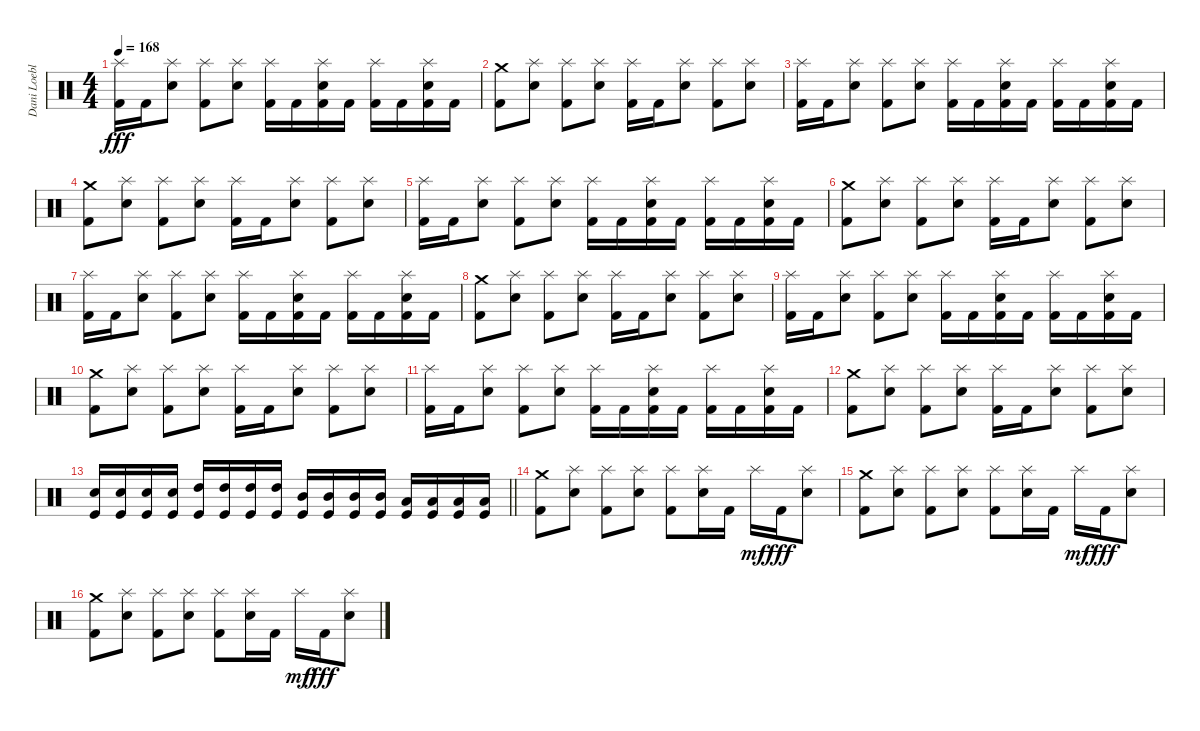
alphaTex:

\track ("Dani Loeble" "Dani Loebl") {instrument percussion}
\staff {score}
\articulation defaults
\ts (4 4)
\tempo 168
\clef neutral
\ks c
("Splash (hit)" "Kick (hit) 2").16{dy fff} "Kick (hit) 2".16 ("Splash (hit)" "Electric Snare (hit)").8 ("Splash (hit)" "Kick (hit) 2").8 ("Splash (hit)" "Electric Snare (hit)").8 ("Splash (hit)" "Kick (hit) 2").16 "Kick (hit) 2".16 ("Splash (hit)" "Electric Snare (hit)" "Kick (hit) 2").16 "Kick (hit) 2".16 ("Splash (hit)" "Kick (hit) 2").16 "Kick (hit) 2".16 ("Splash (hit)" "Electric Snare (hit)" "Kick (hit) 2").16 "Kick (hit) 2".16 |
("Crash medium (hit)" "Kick (hit) 2").8 ("Splash (hit)" "Electric Snare (hit)").8 ("Splash (hit)" "Kick (hit) 2").8 ("Splash (hit)" "Electric Snare (hit)").8 ("Splash (hit)" "Kick (hit) 2").16 "Kick (hit) 2".16 ("Splash (hit)" "Electric Snare (hit)").8 ("Splash (hit)" "Kick (hit) 2").8 ("Splash (hit)" "Electric Snare (hit)").8 |
("Splash (hit)" "Kick (hit) 2").16 "Kick (hit) 2".16 ("Splash (hit)" "Electric Snare (hit)").8 ("Splash (hit)" "Kick (hit) 2").8 ("Splash (hit)" "Electric Snare (hit)").8 ("Splash (hit)" "Kick (hit) 2").16 "Kick (hit) 2".16 ("Splash (hit)" "Electric Snare (hit)" "Kick (hit) 2").16 "Kick (hit) 2".16 ("Splash (hit)" "Kick (hit) 2").16 "Kick (hit) 2".16 ("Splash (hit)" "Electric Snare (hit)" "Kick (hit) 2").16 "Kick (hit) 2".16 |
("Crash medium (hit)" "Kick (hit) 2").8 ("Splash (hit)" "Electric Snare (hit)").8 ("Splash (hit)" "Kick (hit) 2").8 ("Splash (hit)" "Electric Snare (hit)").8 ("Splash (hit)" "Kick (hit) 2").16 "Kick (hit) 2".16 ("Splash (hit)" "Electric Snare (hit)").8 ("Splash (hit)" "Kick (hit) 2").8 ("Splash (hit)" "Electric Snare (hit)").8 |
("Splash (hit)" "Kick (hit) 2").16 "Kick (hit) 2".16 ("Splash (hit)" "Electric Snare (hit)").8 ("Splash (hit)" "Kick (hit) 2").8 ("Splash (hit)" "Electric Snare (hit)").8 ("Splash (hit)" "Kick (hit) 2").16 "Kick (hit) 2".16 ("Splash (hit)" "Electric Snare (hit)" "Kick (hit) 2").16 "Kick (hit) 2".16 ("Splash (hit)" "Kick (hit) 2").16 "Kick (hit) 2".16 ("Splash (hit)" "Electric Snare (hit)" "Kick (hit) 2").16 "Kick (hit) 2".16 |
("Crash medium (hit)" "Kick (hit) 2").8 ("Splash (hit)" "Electric Snare (hit)").8 ("Splash (hit)" "Kick (hit) 2").8 ("Splash (hit)" "Electric Snare (hit)").8 ("Splash (hit)" "Kick (hit) 2").16 "Kick (hit) 2".16 ("Splash (hit)" "Electric Snare (hit)").8 ("Splash (hit)" "Kick (hit) 2").8 ("Splash (hit)" "Electric Snare (hit)").8 |
("Splash (hit)" "Kick (hit) 2").16 "Kick (hit) 2".16 ("Splash (hit)" "Electric Snare (hit)").8 ("Splash (hit)" "Kick (hit) 2").8 ("Splash (hit)" "Electric Snare (hit)").8 ("Splash (hit)" "Kick (hit) 2").16 "Kick (hit) 2".16 ("Splash (hit)" "Electric Snare (hit)" "Kick (hit) 2").16 "Kick (hit) 2".16 ("Splash (hit)" "Kick (hit) 2").16 "Kick (hit) 2".16 ("Splash (hit)" "Electric Snare (hit)" "Kick (hit) 2").16 "Kick (hit) 2".16 |
("Crash medium (hit)" "Kick (hit) 2").8 ("Splash (hit)" "Electric Snare (hit)").8 ("Splash (hit)" "Kick (hit) 2").8 ("Splash (hit)" "Electric Snare (hit)").8 ("Splash (hit)" "Kick (hit) 2").16 "Kick (hit) 2".16 ("Splash (hit)" "Electric Snare (hit)").8 ("Splash (hit)" "Kick (hit) 2").8 ("Splash (hit)" "Electric Snare (hit)").8 |
("Splash (hit)" "Kick (hit) 2").16 "Kick (hit) 2".16 ("Splash (hit)" "Electric Snare (hit)").8 ("Splash (hit)" "Kick (hit) 2").8 ("Splash (hit)" "Electric Snare (hit)").8 ("Splash (hit)" "Kick (hit) 2").16 "Kick (hit) 2".16 ("Splash (hit)" "Electric Snare (hit)" "Kick (hit) 2").16 "Kick (hit) 2".16 ("Splash (hit)" "Kick (hit) 2").16 "Kick (hit) 2".16 ("Splash (hit)" "Electric Snare (hit)" "Kick (hit) 2").16 "Kick (hit) 2".16 |
("Crash medium (hit)" "Kick (hit) 2").8 ("Splash (hit)" "Electric Snare (hit)").8 ("Splash (hit)" "Kick (hit) 2").8 ("Splash (hit)" "Electric Snare (hit)").8 ("Splash (hit)" "Kick (hit) 2").16 "Kick (hit) 2".16 ("Splash (hit)" "Electric Snare (hit)").8 ("Splash (hit)" "Kick (hit) 2").8 ("Splash (hit)" "Electric Snare (hit)").8 |
("Splash (hit)" "Kick (hit) 2").16 "Kick (hit) 2".16 ("Splash (hit)" "Electric Snare (hit)").8 ("Splash (hit)" "Kick (hit) 2").8 ("Splash (hit)" "Electric Snare (hit)").8 ("Splash (hit)" "Kick (hit) 2").16 "Kick (hit) 2".16 ("Splash (hit)" "Electric Snare (hit)" "Kick (hit) 2").16 "Kick (hit) 2".16 ("Splash (hit)" "Kick (hit) 2").16 "Kick (hit) 2".16 ("Splash (hit)" "Electric Snare (hit)" "Kick (hit) 2").16 "Kick (hit) 2".16 |
("Crash medium (hit)" "Kick (hit) 2").8 ("Splash (hit)" "Electric Snare (hit)").8 ("Splash (hit)" "Kick (hit) 2").8 ("Splash (hit)" "Electric Snare (hit)").8 ("Splash (hit)" "Kick (hit) 2").16 "Kick (hit) 2".16 ("Splash (hit)" "Electric Snare (hit)").8 ("Splash (hit)" "Kick (hit) 2").8 ("Splash (hit)" "Electric Snare (hit)").8 |
\barLineRight lightlight
("Electric Snare (hit)" "Kick (hit)").16 ("Electric Snare (hit)" "Kick (hit)").16 ("Electric Snare (hit)" "Kick (hit)").16 ("Electric Snare (hit)" "Kick (hit)").16 ("High Tom (hit)" "Kick (hit)").16 ("High Tom (hit)" "Kick (hit)").16 ("High Tom (hit)" "Kick (hit)").16 ("High Tom (hit)" "Kick (hit)").16 ("Mid Tom (hit)" "Kick (hit)").16 ("Mid Tom (hit)" "Kick (hit)").16 ("Mid Tom (hit)" "Kick (hit)").16 ("Mid Tom (hit)" "Kick (hit)").16 ("Low Tom (hit)" "Kick (hit)").16 ("Low Tom (hit)" "Kick (hit)").16 ("Low Tom (hit)" "Kick (hit)").16 ("Low Tom (hit)" "Kick (hit)").16 |
\section ("" "")
("Crash medium (hit)" "Kick (hit) 2").8 ("Splash (hit)" "Electric Snare (hit)").8 ("Splash (hit)" "Kick (hit) 2").8 ("Splash (hit)" "Electric Snare (hit)").8 ("Splash (hit)" "Kick (hit) 2").8 ("Splash (hit)" "Electric Snare (hit)").16 "Kick (hit) 2".16 "Splash (hit)".16{dy mf} "Kick (hit) 2".16{dy fff} ("Splash (hit)" "Electric Snare (hit)").8 |
("Crash medium (hit)" "Kick (hit) 2").8 ("Splash (hit)" "Electric Snare (hit)").8 ("Splash (hit)" "Kick (hit) 2").8 ("Splash (hit)" "Electric Snare (hit)").8 ("Splash (hit)" "Kick (hit) 2").8 ("Splash (hit)" "Electric Snare (hit)").16 "Kick (hit) 2".16 "Splash (hit)".16{dy mf} "Kick (hit) 2".16{dy fff} ("Splash (hit)" "Electric Snare (hit)").8 |
("Crash medium (hit)" "Kick (hit) 2").8 ("Splash (hit)" "Electric Snare (hit)").8 ("Splash (hit)" "Kick (hit) 2").8 ("Splash (hit)" "Electric Snare (hit)").8 ("Splash (hit)" "Kick (hit) 2").8 ("Splash (hit)" "Electric Snare (hit)").16 "Kick (hit) 2".16 "Splash (hit)".16{dy mf} "Kick (hit) 2".16{dy fff} ("Splash (hit)" "Electric Snare (hit)").8
